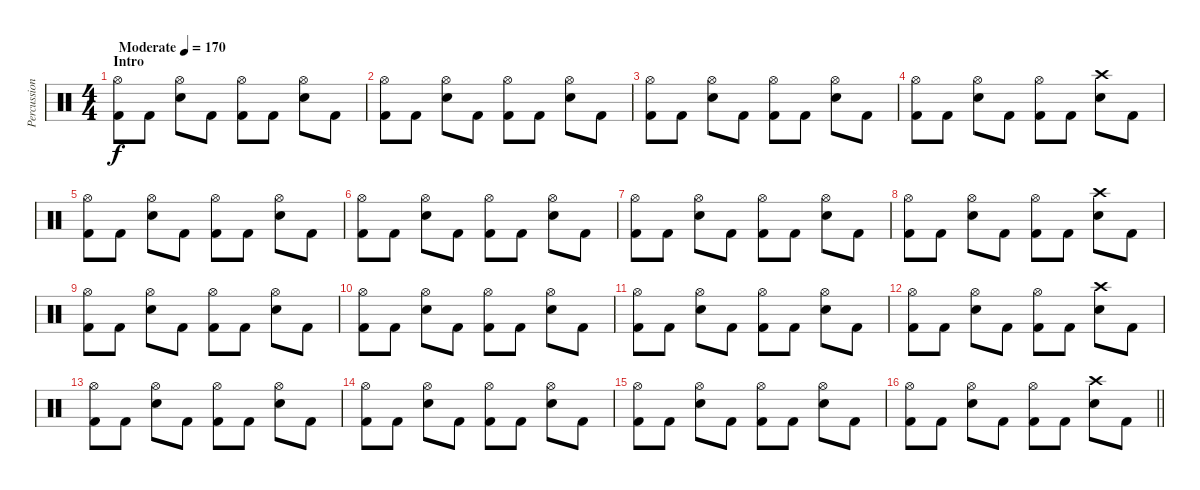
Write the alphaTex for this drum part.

\track ("Percussion" "Percussion") {instrument percussion}
\staff {score}
\articulation defaults
\ts (4 4)
\section ("" "Intro")
\tempo (170 "Moderate")
\clef neutral
\ks c
("Hi-Hat (open)" "Kick (hit) 2").8{dy f} "Kick (hit) 2".8 ("Hi-Hat (open)" "Electric Snare (hit)").8 "Kick (hit) 2".8 ("Hi-Hat (open)" "Kick (hit) 2").8 "Kick (hit) 2".8 ("Hi-Hat (open)" "Electric Snare (hit)").8 "Kick (hit) 2".8 |
("Hi-Hat (open)" "Kick (hit) 2").8 "Kick (hit) 2".8 ("Hi-Hat (open)" "Electric Snare (hit)").8 "Kick (hit) 2".8 ("Hi-Hat (open)" "Kick (hit) 2").8 "Kick (hit) 2".8 ("Hi-Hat (open)" "Electric Snare (hit)").8 "Kick (hit) 2".8 |
("Hi-Hat (open)" "Kick (hit) 2").8 "Kick (hit) 2".8 ("Hi-Hat (open)" "Electric Snare (hit)").8 "Kick (hit) 2".8 ("Hi-Hat (open)" "Kick (hit) 2").8 "Kick (hit) 2".8 ("Hi-Hat (open)" "Electric Snare (hit)").8 "Kick (hit) 2".8 |
("Hi-Hat (open)" "Kick (hit) 2").8 "Kick (hit) 2".8 ("Hi-Hat (open)" "Electric Snare (hit)").8 "Kick (hit) 2".8 ("Hi-Hat (open)" "Kick (hit) 2").8 "Kick (hit) 2".8 ("Crash high (hit)" "Electric Snare (hit)").8 "Kick (hit) 2".8 |
("Hi-Hat (open)" "Kick (hit) 2").8 "Kick (hit) 2".8 ("Hi-Hat (open)" "Electric Snare (hit)").8 "Kick (hit) 2".8 ("Hi-Hat (open)" "Kick (hit) 2").8 "Kick (hit) 2".8 ("Hi-Hat (open)" "Electric Snare (hit)").8 "Kick (hit) 2".8 |
("Hi-Hat (open)" "Kick (hit) 2").8 "Kick (hit) 2".8 ("Hi-Hat (open)" "Electric Snare (hit)").8 "Kick (hit) 2".8 ("Hi-Hat (open)" "Kick (hit) 2").8 "Kick (hit) 2".8 ("Hi-Hat (open)" "Electric Snare (hit)").8 "Kick (hit) 2".8 |
("Hi-Hat (open)" "Kick (hit) 2").8 "Kick (hit) 2".8 ("Hi-Hat (open)" "Electric Snare (hit)").8 "Kick (hit) 2".8 ("Hi-Hat (open)" "Kick (hit) 2").8 "Kick (hit) 2".8 ("Hi-Hat (open)" "Electric Snare (hit)").8 "Kick (hit) 2".8 |
("Hi-Hat (open)" "Kick (hit) 2").8 "Kick (hit) 2".8 ("Hi-Hat (open)" "Electric Snare (hit)").8 "Kick (hit) 2".8 ("Hi-Hat (open)" "Kick (hit) 2").8 "Kick (hit) 2".8 ("Crash high (hit)" "Electric Snare (hit)").8 "Kick (hit) 2".8 |
("Hi-Hat (open)" "Kick (hit) 2").8 "Kick (hit) 2".8 ("Hi-Hat (open)" "Electric Snare (hit)").8 "Kick (hit) 2".8 ("Hi-Hat (open)" "Kick (hit) 2").8 "Kick (hit) 2".8 ("Hi-Hat (open)" "Electric Snare (hit)").8 "Kick (hit) 2".8 |
("Hi-Hat (open)" "Kick (hit) 2").8 "Kick (hit) 2".8 ("Hi-Hat (open)" "Electric Snare (hit)").8 "Kick (hit) 2".8 ("Hi-Hat (open)" "Kick (hit) 2").8 "Kick (hit) 2".8 ("Hi-Hat (open)" "Electric Snare (hit)").8 "Kick (hit) 2".8 |
("Hi-Hat (open)" "Kick (hit) 2").8 "Kick (hit) 2".8 ("Hi-Hat (open)" "Electric Snare (hit)").8 "Kick (hit) 2".8 ("Hi-Hat (open)" "Kick (hit) 2").8 "Kick (hit) 2".8 ("Hi-Hat (open)" "Electric Snare (hit)").8 "Kick (hit) 2".8 |
("Hi-Hat (open)" "Kick (hit) 2").8 "Kick (hit) 2".8 ("Hi-Hat (open)" "Electric Snare (hit)").8 "Kick (hit) 2".8 ("Hi-Hat (open)" "Kick (hit) 2").8 "Kick (hit) 2".8 ("Crash high (hit)" "Electric Snare (hit)").8 "Kick (hit) 2".8 |
("Hi-Hat (open)" "Kick (hit) 2").8 "Kick (hit) 2".8 ("Hi-Hat (open)" "Electric Snare (hit)").8 "Kick (hit) 2".8 ("Hi-Hat (open)" "Kick (hit) 2").8 "Kick (hit) 2".8 ("Hi-Hat (open)" "Electric Snare (hit)").8 "Kick (hit) 2".8 |
("Hi-Hat (open)" "Kick (hit) 2").8 "Kick (hit) 2".8 ("Hi-Hat (open)" "Electric Snare (hit)").8 "Kick (hit) 2".8 ("Hi-Hat (open)" "Kick (hit) 2").8 "Kick (hit) 2".8 ("Hi-Hat (open)" "Electric Snare (hit)").8 "Kick (hit) 2".8 |
("Hi-Hat (open)" "Kick (hit) 2").8 "Kick (hit) 2".8 ("Hi-Hat (open)" "Electric Snare (hit)").8 "Kick (hit) 2".8 ("Hi-Hat (open)" "Kick (hit) 2").8 "Kick (hit) 2".8 ("Hi-Hat (open)" "Electric Snare (hit)").8 "Kick (hit) 2".8 |
\barLineRight lightlight
("Hi-Hat (open)" "Kick (hit) 2").8 "Kick (hit) 2".8 ("Hi-Hat (open)" "Electric Snare (hit)").8 "Kick (hit) 2".8 ("Hi-Hat (open)" "Kick (hit) 2").8 "Kick (hit) 2".8 ("Crash high (hit)" "Electric Snare (hit)").8 "Kick (hit) 2".8
